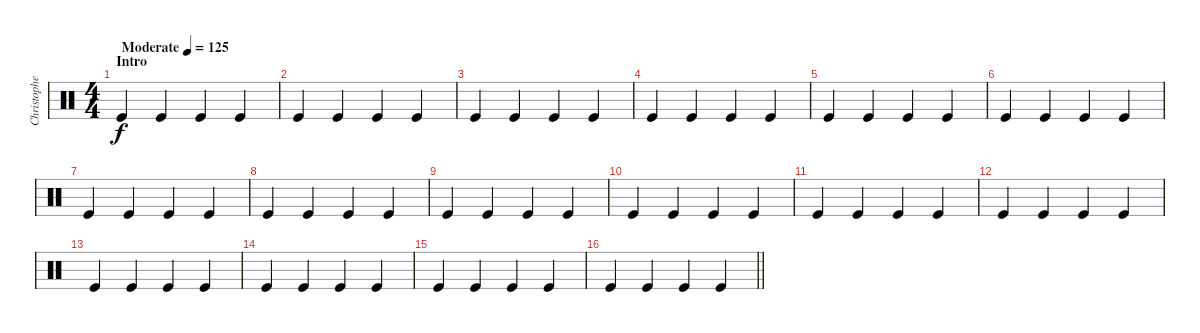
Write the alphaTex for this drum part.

\track ("Christopher - Drums" "Christophe") {instrument percussion}
\staff {score}
\articulation defaults
\ts (4 4)
\section ("" "Intro")
\tempo (125 "Moderate")
\clef neutral
\ks c "Kick (hit)".4{dy f} "Kick (hit)".4 "Kick (hit)".4 "Kick (hit)".4
|
"Kick (hit)".4 "Kick (hit)".4 "Kick (hit)".4 "Kick (hit)".4 |
"Kick (hit)".4 "Kick (hit)".4 "Kick (hit)".4 "Kick (hit)".4 |
"Kick (hit)".4 "Kick (hit)".4 "Kick (hit)".4 "Kick (hit)".4 |
"Kick (hit)".4 "Kick (hit)".4 "Kick (hit)".4 "Kick (hit)".4 |
"Kick (hit)".4 "Kick (hit)".4 "Kick (hit)".4 "Kick (hit)".4 |
"Kick (hit)".4 "Kick (hit)".4 "Kick (hit)".4 "Kick (hit)".4 |
"Kick (hit)".4 "Kick (hit)".4 "Kick (hit)".4 "Kick (hit)".4 |
"Kick (hit)".4 "Kick (hit)".4 "Kick (hit)".4 "Kick (hit)".4 |
"Kick (hit)".4 "Kick (hit)".4 "Kick (hit)".4 "Kick (hit)".4 |
"Kick (hit)".4 "Kick (hit)".4 "Kick (hit)".4 "Kick (hit)".4 |
"Kick (hit)".4 "Kick (hit)".4 "Kick (hit)".4 "Kick (hit)".4 |
"Kick (hit)".4 "Kick (hit)".4 "Kick (hit)".4 "Kick (hit)".4 |
"Kick (hit)".4 "Kick (hit)".4 "Kick (hit)".4 "Kick (hit)".4 |
"Kick (hit)".4 "Kick (hit)".4 "Kick (hit)".4 "Kick (hit)".4 |
\barLineRight lightlight "Kick (hit)".4 "Kick (hit)".4 "Kick (hit)".4 "Kick (hit)".4
